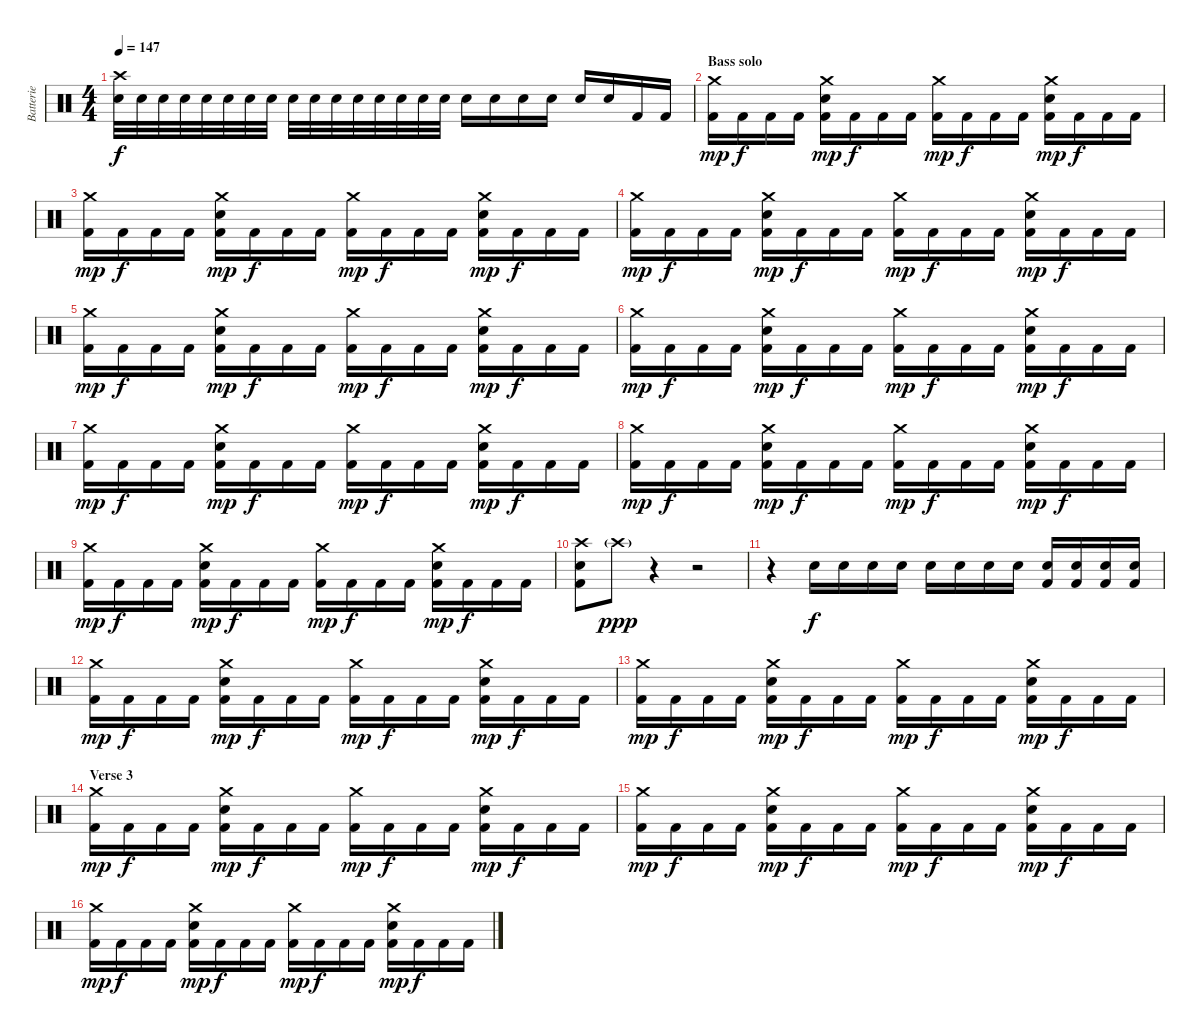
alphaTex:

\track ("Batterie" "Batterie") {instrument percussion}
\staff {score}
\articulation defaults
\ts (4 4)
\tempo 147
\clef neutral
\ks c
("Crash high (hit)" "Electric Snare (hit)").32{dy f} "Electric Snare (hit)".32 "Electric Snare (hit)".32 "Electric Snare (hit)".32 "Electric Snare (hit)".32 "Electric Snare (hit)".32 "Electric Snare (hit)".32 "Electric Snare (hit)".32 "Electric Snare (hit)".32 "Electric Snare (hit)".32 "Electric Snare (hit)".32 "Electric Snare (hit)".32 "Electric Snare (hit)".32 "Electric Snare (hit)".32 "Electric Snare (hit)".32 "Electric Snare (hit)".32 "Electric Snare (hit)".16 "Electric Snare (hit)".16 "Electric Snare (hit)".16 "Electric Snare (hit)".16 "Electric Snare (hit)".16 "Electric Snare (hit)".16 "Kick (hit) 2".16 "Kick (hit) 2".16 |
\section ("" "Bass solo")
("Crash medium (hit)" "Kick (hit) 2").16{dy mp} "Kick (hit) 2".16{dy f} "Kick (hit) 2".16 "Kick (hit) 2".16 ("Crash medium (hit)" "Kick (hit) 2" "Electric Snare (hit)").16{dy mp} "Kick (hit) 2".16{dy f} "Kick (hit) 2".16 "Kick (hit) 2".16 ("Crash medium (hit)" "Kick (hit) 2").16{dy mp} "Kick (hit) 2".16{dy f} "Kick (hit) 2".16 "Kick (hit) 2".16 ("Crash medium (hit)" "Kick (hit) 2" "Electric Snare (hit)").16{dy mp} "Kick (hit) 2".16{dy f} "Kick (hit) 2".16 "Kick (hit) 2".16 |
("Crash medium (hit)" "Kick (hit) 2").16{dy mp} "Kick (hit) 2".16{dy f} "Kick (hit) 2".16 "Kick (hit) 2".16 ("Crash medium (hit)" "Kick (hit) 2" "Electric Snare (hit)").16{dy mp} "Kick (hit) 2".16{dy f} "Kick (hit) 2".16 "Kick (hit) 2".16 ("Crash medium (hit)" "Kick (hit) 2").16{dy mp} "Kick (hit) 2".16{dy f} "Kick (hit) 2".16 "Kick (hit) 2".16 ("Crash medium (hit)" "Kick (hit) 2" "Electric Snare (hit)").16{dy mp} "Kick (hit) 2".16{dy f} "Kick (hit) 2".16 "Kick (hit) 2".16 |
("Crash medium (hit)" "Kick (hit) 2").16{dy mp} "Kick (hit) 2".16{dy f} "Kick (hit) 2".16 "Kick (hit) 2".16 ("Crash medium (hit)" "Kick (hit) 2" "Electric Snare (hit)").16{dy mp} "Kick (hit) 2".16{dy f} "Kick (hit) 2".16 "Kick (hit) 2".16 ("Crash medium (hit)" "Kick (hit) 2").16{dy mp} "Kick (hit) 2".16{dy f} "Kick (hit) 2".16 "Kick (hit) 2".16 ("Crash medium (hit)" "Kick (hit) 2" "Electric Snare (hit)").16{dy mp} "Kick (hit) 2".16{dy f} "Kick (hit) 2".16 "Kick (hit) 2".16 |
("Crash medium (hit)" "Kick (hit) 2").16{dy mp} "Kick (hit) 2".16{dy f} "Kick (hit) 2".16 "Kick (hit) 2".16 ("Crash medium (hit)" "Kick (hit) 2" "Electric Snare (hit)").16{dy mp} "Kick (hit) 2".16{dy f} "Kick (hit) 2".16 "Kick (hit) 2".16 ("Crash medium (hit)" "Kick (hit) 2").16{dy mp} "Kick (hit) 2".16{dy f} "Kick (hit) 2".16 "Kick (hit) 2".16 ("Crash medium (hit)" "Kick (hit) 2" "Electric Snare (hit)").16{dy mp} "Kick (hit) 2".16{dy f} "Kick (hit) 2".16 "Kick (hit) 2".16 |
("Crash medium (hit)" "Kick (hit) 2").16{dy mp} "Kick (hit) 2".16{dy f} "Kick (hit) 2".16 "Kick (hit) 2".16 ("Crash medium (hit)" "Kick (hit) 2" "Electric Snare (hit)").16{dy mp} "Kick (hit) 2".16{dy f} "Kick (hit) 2".16 "Kick (hit) 2".16 ("Crash medium (hit)" "Kick (hit) 2").16{dy mp} "Kick (hit) 2".16{dy f} "Kick (hit) 2".16 "Kick (hit) 2".16 ("Crash medium (hit)" "Kick (hit) 2" "Electric Snare (hit)").16{dy mp} "Kick (hit) 2".16{dy f} "Kick (hit) 2".16 "Kick (hit) 2".16 |
("Crash medium (hit)" "Kick (hit) 2").16{dy mp} "Kick (hit) 2".16{dy f} "Kick (hit) 2".16 "Kick (hit) 2".16 ("Crash medium (hit)" "Kick (hit) 2" "Electric Snare (hit)").16{dy mp} "Kick (hit) 2".16{dy f} "Kick (hit) 2".16 "Kick (hit) 2".16 ("Crash medium (hit)" "Kick (hit) 2").16{dy mp} "Kick (hit) 2".16{dy f} "Kick (hit) 2".16 "Kick (hit) 2".16 ("Crash medium (hit)" "Kick (hit) 2" "Electric Snare (hit)").16{dy mp} "Kick (hit) 2".16{dy f} "Kick (hit) 2".16 "Kick (hit) 2".16 |
("Crash medium (hit)" "Kick (hit) 2").16{dy mp} "Kick (hit) 2".16{dy f} "Kick (hit) 2".16 "Kick (hit) 2".16 ("Crash medium (hit)" "Kick (hit) 2" "Electric Snare (hit)").16{dy mp} "Kick (hit) 2".16{dy f} "Kick (hit) 2".16 "Kick (hit) 2".16 ("Crash medium (hit)" "Kick (hit) 2").16{dy mp} "Kick (hit) 2".16{dy f} "Kick (hit) 2".16 "Kick (hit) 2".16 ("Crash medium (hit)" "Kick (hit) 2" "Electric Snare (hit)").16{dy mp} "Kick (hit) 2".16{dy f} "Kick (hit) 2".16 "Kick (hit) 2".16 |
("Crash medium (hit)" "Kick (hit) 2").16{dy mp} "Kick (hit) 2".16{dy f} "Kick (hit) 2".16 "Kick (hit) 2".16 ("Crash medium (hit)" "Kick (hit) 2" "Electric Snare (hit)").16{dy mp} "Kick (hit) 2".16{dy f} "Kick (hit) 2".16 "Kick (hit) 2".16 ("Crash medium (hit)" "Kick (hit) 2").16{dy mp} "Kick (hit) 2".16{dy f} "Kick (hit) 2".16 "Kick (hit) 2".16 ("Crash medium (hit)" "Kick (hit) 2" "Electric Snare (hit)").16{dy mp} "Kick (hit) 2".16{dy f} "Kick (hit) 2".16 "Kick (hit) 2".16 |
("Crash high (hit)" "Electric Snare (hit)" "Kick (hit) 2").8 "Crash high (hit)"{g}.8{dy ppp} r.4 r.2 |
r.4 "Electric Snare (hit)".16{dy f} "Electric Snare (hit)".16 "Electric Snare (hit)".16 "Electric Snare (hit)".16 "Electric Snare (hit)".16 "Electric Snare (hit)".16 "Electric Snare (hit)".16 "Electric Snare (hit)".16 ("Electric Snare (hit)" "Kick (hit) 2").16 ("Electric Snare (hit)" "Kick (hit) 2").16 ("Electric Snare (hit)" "Kick (hit) 2").16 ("Electric Snare (hit)" "Kick (hit) 2").16 |
("Crash medium (hit)" "Kick (hit) 2").16{dy mp} "Kick (hit) 2".16{dy f} "Kick (hit) 2".16 "Kick (hit) 2".16 ("Crash medium (hit)" "Kick (hit) 2" "Electric Snare (hit)").16{dy mp} "Kick (hit) 2".16{dy f} "Kick (hit) 2".16 "Kick (hit) 2".16 ("Crash medium (hit)" "Kick (hit) 2").16{dy mp} "Kick (hit) 2".16{dy f} "Kick (hit) 2".16 "Kick (hit) 2".16 ("Crash medium (hit)" "Kick (hit) 2" "Electric Snare (hit)").16{dy mp} "Kick (hit) 2".16{dy f} "Kick (hit) 2".16 "Kick (hit) 2".16 |
("Crash medium (hit)" "Kick (hit) 2").16{dy mp} "Kick (hit) 2".16{dy f} "Kick (hit) 2".16 "Kick (hit) 2".16 ("Crash medium (hit)" "Kick (hit) 2" "Electric Snare (hit)").16{dy mp} "Kick (hit) 2".16{dy f} "Kick (hit) 2".16 "Kick (hit) 2".16 ("Crash medium (hit)" "Kick (hit) 2").16{dy mp} "Kick (hit) 2".16{dy f} "Kick (hit) 2".16 "Kick (hit) 2".16 ("Crash medium (hit)" "Kick (hit) 2" "Electric Snare (hit)").16{dy mp} "Kick (hit) 2".16{dy f} "Kick (hit) 2".16 "Kick (hit) 2".16 |
\section ("" "Verse 3")
("Crash medium (hit)" "Kick (hit) 2").16{dy mp} "Kick (hit) 2".16{dy f} "Kick (hit) 2".16 "Kick (hit) 2".16 ("Crash medium (hit)" "Kick (hit) 2" "Electric Snare (hit)").16{dy mp} "Kick (hit) 2".16{dy f} "Kick (hit) 2".16 "Kick (hit) 2".16 ("Crash medium (hit)" "Kick (hit) 2").16{dy mp} "Kick (hit) 2".16{dy f} "Kick (hit) 2".16 "Kick (hit) 2".16 ("Crash medium (hit)" "Kick (hit) 2" "Electric Snare (hit)").16{dy mp} "Kick (hit) 2".16{dy f} "Kick (hit) 2".16 "Kick (hit) 2".16 |
("Crash medium (hit)" "Kick (hit) 2").16{dy mp} "Kick (hit) 2".16{dy f} "Kick (hit) 2".16 "Kick (hit) 2".16 ("Crash medium (hit)" "Kick (hit) 2" "Electric Snare (hit)").16{dy mp} "Kick (hit) 2".16{dy f} "Kick (hit) 2".16 "Kick (hit) 2".16 ("Crash medium (hit)" "Kick (hit) 2").16{dy mp} "Kick (hit) 2".16{dy f} "Kick (hit) 2".16 "Kick (hit) 2".16 ("Crash medium (hit)" "Kick (hit) 2" "Electric Snare (hit)").16{dy mp} "Kick (hit) 2".16{dy f} "Kick (hit) 2".16 "Kick (hit) 2".16 |
("Crash medium (hit)" "Kick (hit) 2").16{dy mp} "Kick (hit) 2".16{dy f} "Kick (hit) 2".16 "Kick (hit) 2".16 ("Crash medium (hit)" "Kick (hit) 2" "Electric Snare (hit)").16{dy mp} "Kick (hit) 2".16{dy f} "Kick (hit) 2".16 "Kick (hit) 2".16 ("Crash medium (hit)" "Kick (hit) 2").16{dy mp} "Kick (hit) 2".16{dy f} "Kick (hit) 2".16 "Kick (hit) 2".16 ("Crash medium (hit)" "Kick (hit) 2" "Electric Snare (hit)").16{dy mp} "Kick (hit) 2".16{dy f} "Kick (hit) 2".16 "Kick (hit) 2".16
